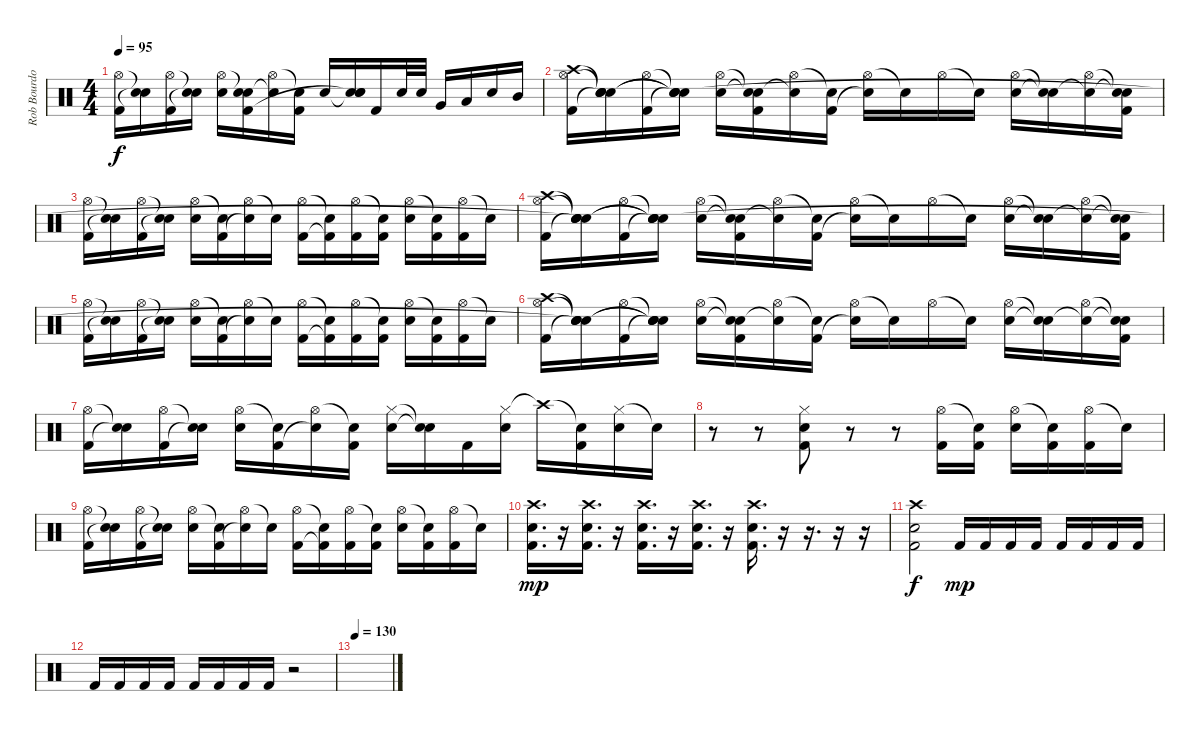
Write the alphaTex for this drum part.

\track ("Rob Bourdon" "Rob Bourdo") {instrument percussion}
\staff {score}
\articulation defaults
\ts (4 4)
\tempo 95
\clef neutral
\ks c
("Hi-Hat (open)" "Kick (hit) 2").16{dy f} ("Snare (hit)"{t} "Snare (hit)"{t}).16 ("Hi-Hat (open)" "Kick (hit) 2").16 ("Snare (hit)"{t} "Snare (hit)"{t}).16 ("Hi-Hat (open)" "Snare (hit) 2").16 ("Snare (hit)"{t} "Snare (hit) 2" "Kick (hit) 2").16 ("Hi-Hat (open)" "Snare (hit)"{t}).16 ("Snare (hit)"{t} "Kick (hit) 2").16 "Snare (hit) 2".16 ("Snare (hit)"{t} "Snare (hit) 2" "Snare (hit)"{t}).16 "Kick (hit) 2".16 "Snare (hit) 2".32 "Snare (hit) 2".32 "Very Low Tom (hit)".16 "Low Tom (hit)".16 "Snare (hit) 2".16 "Mid Tom (hit)".16 |
("Crash high (hit)" "Hi-Hat (open)" "Kick (hit) 2").16 ("Snare (hit)"{t} "Snare (hit)"{t} "Snare (hit)"{t} "Snare (hit)").16 ("Hi-Hat (open)" "Kick (hit) 2").16 ("Snare (hit)"{t} "Snare (hit)"{t} "Snare (hit)"{t} "Snare (hit)"{t}).16 ("Hi-Hat (open)" "Snare (hit) 2").16 ("Snare (hit)"{t} "Snare (hit)"{t} "Kick (hit) 2").16 ("Hi-Hat (open)" "Snare (hit)"{t}).16 ("Snare (hit)"{t} "Kick (hit) 2").16 ("Hi-Hat (open)" "Snare (hit)"{t}).16 "Snare (hit)"{t}.16 "Hi-Hat (open)".16 "Snare (hit)"{t}.16 ("Hi-Hat (open)" "Snare (hit) 2").16 ("Snare (hit)"{t} "Snare (hit)"{t}).16 ("Hi-Hat (open)" "Snare (hit)"{t}).16 ("Snare (hit)"{t} "Snare (hit)"{t} "Kick (hit) 2").16 |
("Hi-Hat (open)" "Kick (hit) 2").16 ("Snare (hit)"{t} "Snare (hit)"{t}).16 ("Hi-Hat (open)" "Kick (hit) 2").16 ("Snare (hit)"{t} "Snare (hit)"{t}).16 ("Hi-Hat (open)" "Snare (hit) 2").16 ("Snare (hit)"{t} "Kick (hit) 2").16 ("Hi-Hat (open)" "Snare (hit)"{t}).16 "Snare (hit)"{t}.16 ("Hi-Hat (open)" "Kick (hit) 2").16 ("Snare (hit)"{t} "Kick (hit) 2"{t}).16 ("Hi-Hat (open)" "Kick (hit) 2").16 ("Snare (hit)"{t} "Kick (hit) 2").16 ("Hi-Hat (open)" "Snare (hit) 2").16 ("Snare (hit)"{t} "Kick (hit) 2").16 ("Hi-Hat (open)" "Kick (hit) 2").16 "Snare (hit)"{t}.16 |
("Crash high (hit)" "Hi-Hat (open)" "Kick (hit) 2").16 ("Snare (hit)"{t} "Snare (hit)"{t} "Snare (hit)"{t} "Snare (hit)"{t}).16 ("Hi-Hat (open)" "Kick (hit) 2").16 ("Snare (hit)"{t} "Snare (hit)"{t} "Snare (hit)"{t} "Snare (hit)"{t}).16 ("Hi-Hat (open)" "Snare (hit) 2").16 ("Snare (hit)"{t} "Snare (hit)"{t} "Kick (hit) 2").16 ("Hi-Hat (open)" "Snare (hit)"{t}).16 ("Snare (hit)"{t} "Kick (hit) 2").16 ("Hi-Hat (open)" "Snare (hit)"{t}).16 "Snare (hit)"{t}.16 "Hi-Hat (open)".16 "Snare (hit)"{t}.16 ("Hi-Hat (open)" "Snare (hit) 2").16 ("Snare (hit)"{t} "Snare (hit)"{t}).16 ("Hi-Hat (open)" "Snare (hit)"{t}).16 ("Snare (hit)"{t} "Snare (hit)"{t} "Kick (hit) 2").16 |
("Hi-Hat (open)" "Kick (hit) 2").16 ("Snare (hit)"{t} "Snare (hit)"{t}).16 ("Hi-Hat (open)" "Kick (hit) 2").16 ("Snare (hit)"{t} "Snare (hit)"{t}).16 ("Hi-Hat (open)" "Snare (hit) 2").16 ("Snare (hit)"{t} "Kick (hit) 2").16 ("Hi-Hat (open)" "Snare (hit)"{t}).16 "Snare (hit)"{t}.16 ("Hi-Hat (open)" "Kick (hit) 2").16 ("Snare (hit)"{t} "Kick (hit) 2"{t}).16 ("Hi-Hat (open)" "Kick (hit) 2").16 ("Snare (hit)"{t} "Kick (hit) 2").16 ("Hi-Hat (open)" "Snare (hit) 2").16 ("Snare (hit)"{t} "Kick (hit) 2").16 ("Hi-Hat (open)" "Kick (hit) 2").16 "Snare (hit)"{t}.16 |
("Crash high (hit)" "Hi-Hat (open)" "Kick (hit) 2").16 ("Snare (hit)"{t} "Snare (hit)"{t} "Snare (hit)"{t} "Snare (hit)"{t}).16 ("Hi-Hat (open)" "Kick (hit) 2").16 ("Snare (hit)"{t} "Snare (hit)"{t} "Snare (hit)"{t} "Snare (hit)"{t}).16 ("Hi-Hat (open)" "Snare (hit) 2").16 ("Snare (hit)"{t} "Snare (hit)"{t} "Kick (hit) 2").16 ("Hi-Hat (open)" "Snare (hit)"{t}).16 ("Snare (hit)"{t} "Kick (hit) 2").16 ("Hi-Hat (open)" "Snare (hit)"{t}).16 "Snare (hit)"{t}.16 "Hi-Hat (open)".16 "Snare (hit)"{t}.16 ("Hi-Hat (open)" "Snare (hit) 2").16 ("Snare (hit)"{t} "Snare (hit)"{t}).16 ("Hi-Hat (open)" "Snare (hit)"{t}).16 ("Snare (hit)"{t} "Snare (hit)"{t} "Kick (hit) 2").16 |
("Hi-Hat (open)" "Kick (hit) 2").16 ("Snare (hit)"{t} "Snare (hit)"{t}).16 ("Hi-Hat (open)" "Kick (hit) 2").16 ("Snare (hit)"{t} "Snare (hit)"{t}).16 ("Hi-Hat (open)" "Snare (hit) 2").16 ("Snare (hit)"{t} "Kick (hit) 2").16 ("Hi-Hat (open)" "Snare (hit)"{t}).16 ("Snare (hit)"{t} "Kick (hit) 2").16 ("Hi-Hat (closed)" "Snare (hit) 2").16 ("Snare (hit)"{t} "Snare (hit)"{t}).16 "Kick (hit) 2".16 ("Hi-Hat (closed)" "Snare (hit) 2").16 "Crash high (hit)"{t}.16 ("Snare (hit)"{t} "Kick (hit) 2").16 ("Hi-Hat (closed)" "Snare (hit) 2").16 "Snare (hit)"{t}.16 |
r.8 r.8 ("Hi-Hat (closed)" "Snare (hit) 2" "Kick (hit) 2").8 r.8 r.8 ("Hi-Hat (open)" "Kick (hit) 2").16 ("Snare (hit)"{t} "Kick (hit) 2").16 ("Hi-Hat (open)" "Snare (hit) 2").16 ("Snare (hit)"{t} "Kick (hit) 2").16 ("Hi-Hat (open)" "Kick (hit) 2").16 "Snare (hit)"{t}.16 |
("Hi-Hat (open)" "Kick (hit) 2").16 ("Snare (hit)"{t} "Snare (hit)"{t}).16 ("Hi-Hat (open)" "Kick (hit) 2").16 ("Snare (hit)"{t} "Snare (hit)"{t}).16 ("Hi-Hat (open)" "Snare (hit) 2").16 ("Snare (hit)"{t} "Kick (hit) 2").16 ("Hi-Hat (open)" "Snare (hit)"{t}).16 "Snare (hit)"{t}.16 ("Hi-Hat (open)" "Kick (hit) 2").16 ("Snare (hit)"{t} "Kick (hit) 2"{t}).16 ("Hi-Hat (open)" "Kick (hit) 2").16 ("Snare (hit)"{t} "Kick (hit) 2").16 ("Hi-Hat (open)" "Snare (hit) 2").16 ("Snare (hit)"{t} "Kick (hit) 2").16 ("Hi-Hat (open)" "Kick (hit) 2").16 "Snare (hit)"{t}.16 |
("Crash high (hit)" "Snare (hit) 2" "Kick (hit) 2").16{d dy mp} r.16 ("Crash high (hit)" "Snare (hit) 2" "Kick (hit) 2").16{d} r.16 ("Crash high (hit)" "Snare (hit) 2" "Kick (hit) 2").16{d} r.16 ("Crash high (hit)" "Snare (hit) 2" "Kick (hit) 2").16{d} r.16 ("Crash high (hit)" "Snare (hit) 2" "Kick (hit) 2").16{d} r.16 r.16{d} r.16 r.16 |
("Crash high (hit)" "Snare (hit) 2" "Kick (hit) 2").2{dy f} "Kick (hit) 2".16{dy mp} "Kick (hit) 2".16 "Kick (hit) 2".16 "Kick (hit) 2".16 "Kick (hit) 2".16 "Kick (hit) 2".16 "Kick (hit) 2".16 "Kick (hit) 2".16 |
"Kick (hit) 2".16 "Kick (hit) 2".16 "Kick (hit) 2".16 "Kick (hit) 2".16 "Kick (hit) 2".16 "Kick (hit) 2".16 "Kick (hit) 2".16 "Kick (hit) 2".16 r.2 |
\tempo 130
